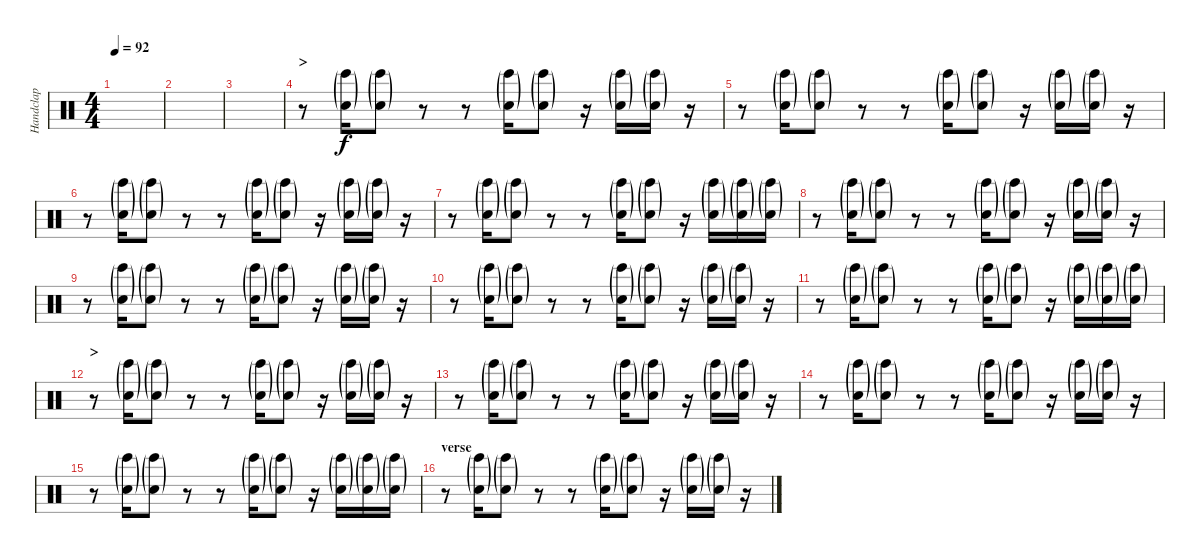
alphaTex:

\track ("Handclap" "Handclap") {instrument percussion}
\staff {score}
\articulation defaults
\ts (4 4)
\tempo 92
\clef neutral
\ks c
|
|
|
\section ("" ">")
r.8 ("Hand Clap (hit)"{g} "Bongo High (hit)"{g}).16 ("Hand Clap (hit)"{g} "Bongo High (hit)"{g}).8 r.8 r.8 ("Hand Clap (hit)"{g} "Bongo High (hit)"{g}).16 ("Hand Clap (hit)"{g} "Bongo High (hit)"{g}).8 r.16 ("Hand Clap (hit)"{g} "Bongo High (hit)"{g}).16 ("Hand Clap (hit)"{g} "Bongo High (hit)"{g}).16 r.16 |
r.8 ("Hand Clap (hit)"{g} "Bongo High (hit)"{g}).16 ("Hand Clap (hit)"{g} "Bongo High (hit)"{g}).8 r.8 r.8 ("Hand Clap (hit)"{g} "Bongo High (hit)"{g}).16 ("Hand Clap (hit)"{g} "Bongo High (hit)"{g}).8 r.16 ("Hand Clap (hit)"{g} "Bongo High (hit)"{g}).16 ("Hand Clap (hit)"{g} "Bongo High (hit)"{g}).16 r.16 |
r.8 ("Hand Clap (hit)"{g} "Bongo High (hit)"{g}).16 ("Hand Clap (hit)"{g} "Bongo High (hit)"{g}).8 r.8 r.8 ("Hand Clap (hit)"{g} "Bongo High (hit)"{g}).16 ("Hand Clap (hit)"{g} "Bongo High (hit)"{g}).8 r.16 ("Hand Clap (hit)"{g} "Bongo High (hit)"{g}).16 ("Hand Clap (hit)"{g} "Bongo High (hit)"{g}).16 r.16 |
r.8 ("Hand Clap (hit)"{g} "Bongo High (hit)"{g}).16 ("Hand Clap (hit)"{g} "Bongo High (hit)"{g}).8 r.8 r.8 ("Hand Clap (hit)"{g} "Bongo High (hit)"{g}).16 ("Hand Clap (hit)"{g} "Bongo High (hit)"{g}).8 r.16 ("Hand Clap (hit)"{g} "Bongo High (hit)"{g}).16 ("Hand Clap (hit)"{g} "Bongo High (hit)"{g}).16 ("Hand Clap (hit)"{g} "Bongo High (hit)"{g}).16 |
r.8 ("Hand Clap (hit)"{g} "Bongo High (hit)"{g}).16 ("Hand Clap (hit)"{g} "Bongo High (hit)"{g}).8 r.8 r.8 ("Hand Clap (hit)"{g} "Bongo High (hit)"{g}).16 ("Hand Clap (hit)"{g} "Bongo High (hit)"{g}).8 r.16 ("Hand Clap (hit)"{g} "Bongo High (hit)"{g}).16 ("Hand Clap (hit)"{g} "Bongo High (hit)"{g}).16 r.16 |
r.8 ("Hand Clap (hit)"{g} "Bongo High (hit)"{g}).16 ("Hand Clap (hit)"{g} "Bongo High (hit)"{g}).8 r.8 r.8 ("Hand Clap (hit)"{g} "Bongo High (hit)"{g}).16 ("Hand Clap (hit)"{g} "Bongo High (hit)"{g}).8 r.16 ("Hand Clap (hit)"{g} "Bongo High (hit)"{g}).16 ("Hand Clap (hit)"{g} "Bongo High (hit)"{g}).16 r.16 |
r.8 ("Hand Clap (hit)"{g} "Bongo High (hit)"{g}).16 ("Hand Clap (hit)"{g} "Bongo High (hit)"{g}).8 r.8 r.8 ("Hand Clap (hit)"{g} "Bongo High (hit)"{g}).16 ("Hand Clap (hit)"{g} "Bongo High (hit)"{g}).8 r.16 ("Hand Clap (hit)"{g} "Bongo High (hit)"{g}).16 ("Hand Clap (hit)"{g} "Bongo High (hit)"{g}).16 r.16 |
r.8 ("Hand Clap (hit)"{g} "Bongo High (hit)"{g}).16 ("Hand Clap (hit)"{g} "Bongo High (hit)"{g}).8 r.8 r.8 ("Hand Clap (hit)"{g} "Bongo High (hit)"{g}).16 ("Hand Clap (hit)"{g} "Bongo High (hit)"{g}).8 r.16 ("Hand Clap (hit)"{g} "Bongo High (hit)"{g}).16 ("Hand Clap (hit)"{g} "Bongo High (hit)"{g}).16 ("Hand Clap (hit)"{g} "Bongo High (hit)"{g}).16 |
\section ("" ">")
r.8 ("Hand Clap (hit)"{g} "Bongo High (hit)"{g}).16 ("Hand Clap (hit)"{g} "Bongo High (hit)"{g}).8 r.8 r.8 ("Hand Clap (hit)"{g} "Bongo High (hit)"{g}).16 ("Hand Clap (hit)"{g} "Bongo High (hit)"{g}).8 r.16 ("Hand Clap (hit)"{g} "Bongo High (hit)"{g}).16 ("Hand Clap (hit)"{g} "Bongo High (hit)"{g}).16 r.16 |
r.8 ("Hand Clap (hit)"{g} "Bongo High (hit)"{g}).16 ("Hand Clap (hit)"{g} "Bongo High (hit)"{g}).8 r.8 r.8 ("Hand Clap (hit)"{g} "Bongo High (hit)"{g}).16 ("Hand Clap (hit)"{g} "Bongo High (hit)"{g}).8 r.16 ("Hand Clap (hit)"{g} "Bongo High (hit)"{g}).16 ("Hand Clap (hit)"{g} "Bongo High (hit)"{g}).16 r.16 |
r.8 ("Hand Clap (hit)"{g} "Bongo High (hit)"{g}).16 ("Hand Clap (hit)"{g} "Bongo High (hit)"{g}).8 r.8 r.8 ("Hand Clap (hit)"{g} "Bongo High (hit)"{g}).16 ("Hand Clap (hit)"{g} "Bongo High (hit)"{g}).8 r.16 ("Hand Clap (hit)"{g} "Bongo High (hit)"{g}).16 ("Hand Clap (hit)"{g} "Bongo High (hit)"{g}).16 r.16 |
r.8 ("Hand Clap (hit)"{g} "Bongo High (hit)"{g}).16 ("Hand Clap (hit)"{g} "Bongo High (hit)"{g}).8 r.8 r.8 ("Hand Clap (hit)"{g} "Bongo High (hit)"{g}).16 ("Hand Clap (hit)"{g} "Bongo High (hit)"{g}).8 r.16 ("Hand Clap (hit)"{g} "Bongo High (hit)"{g}).16 ("Hand Clap (hit)"{g} "Bongo High (hit)"{g}).16 ("Hand Clap (hit)"{g} "Bongo High (hit)"{g}).16 |
\section ("" "verse")
r.8 ("Hand Clap (hit)"{g} "Bongo High (hit)"{g}).16 ("Hand Clap (hit)"{g} "Bongo High (hit)"{g}).8 r.8 r.8 ("Hand Clap (hit)"{g} "Bongo High (hit)"{g}).16 ("Hand Clap (hit)"{g} "Bongo High (hit)"{g}).8 r.16 ("Hand Clap (hit)"{g} "Bongo High (hit)"{g}).16 ("Hand Clap (hit)"{g} "Bongo High (hit)"{g}).16 r.16
